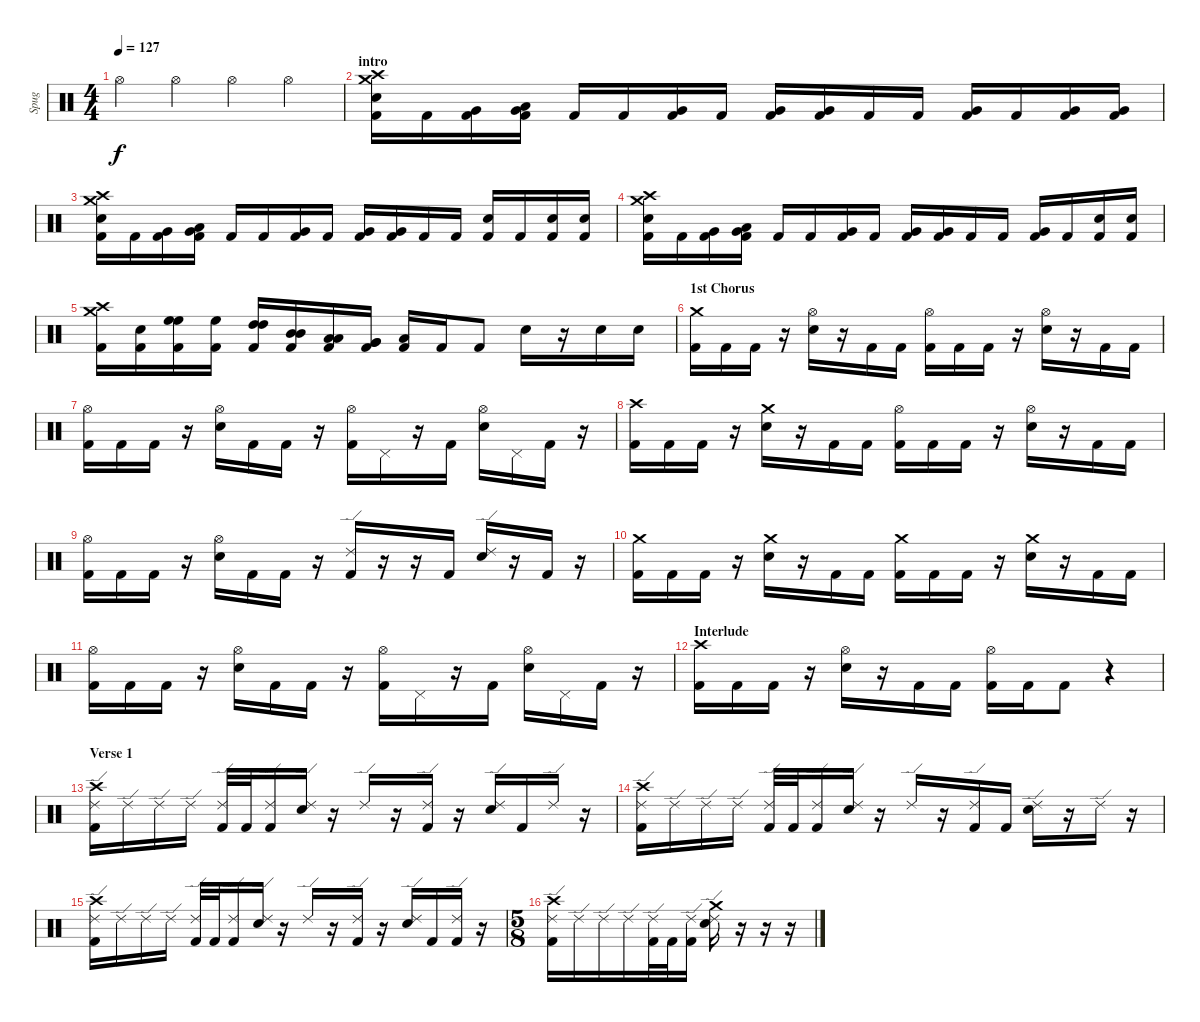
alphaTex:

\track ("Spug" "Spug") {instrument percussion}
\staff {score}
\articulation defaults
\ts (4 4)
\tempo 127
\clef neutral
\ks c "Hi-Hat (open)".4{dy f} "Hi-Hat (open)".4 "Hi-Hat (open)".4 "Hi-Hat (open)".4
|
\section ("" "intro")
("Crash medium (hit)" "Crash high (hit)" "Electric Snare (hit)" "Kick (hit) 2").16 "Kick (hit) 2".16 ("Very Low Tom (hit)" "Kick (hit) 2").16 ("Low Tom (hit)" "Very Low Tom (hit)" "Kick (hit) 2").16 "Kick (hit) 2".16 "Kick (hit) 2".16 ("Very Low Tom (hit)" "Kick (hit) 2").16 "Kick (hit) 2".16 ("Very Low Tom (hit)" "Kick (hit) 2").16 ("Very Low Tom (hit)" "Kick (hit) 2").16 "Kick (hit) 2".16 "Kick (hit) 2".16 ("Very Low Tom (hit)" "Kick (hit) 2").16 "Kick (hit) 2".16 ("Very Low Tom (hit)" "Kick (hit) 2").16 ("Very Low Tom (hit)" "Kick (hit) 2").16 |
("Crash medium (hit)" "Crash high (hit)" "Electric Snare (hit)" "Kick (hit) 2").16 "Kick (hit) 2".16 ("Very Low Tom (hit)" "Kick (hit) 2").16 ("Low Tom (hit)" "Very Low Tom (hit)" "Kick (hit) 2").16 "Kick (hit) 2".16 "Kick (hit) 2".16 ("Very Low Tom (hit)" "Kick (hit) 2").16 "Kick (hit) 2".16 ("Very Low Tom (hit)" "Kick (hit) 2").16 ("Very Low Tom (hit)" "Kick (hit) 2").16 "Kick (hit) 2".16 "Kick (hit) 2".16 ("Electric Snare (hit)" "Kick (hit) 2").16 "Kick (hit) 2".16 ("Electric Snare (hit)" "Kick (hit) 2").16 ("Electric Snare (hit)" "Kick (hit) 2").16 |
("Crash medium (hit)" "Crash high (hit)" "Electric Snare (hit)" "Kick (hit) 2").16 "Kick (hit) 2".16 ("Very Low Tom (hit)" "Kick (hit) 2").16 ("Low Tom (hit)" "Very Low Tom (hit)" "Kick (hit) 2").16 "Kick (hit) 2".16 "Kick (hit) 2".16 ("Very Low Tom (hit)" "Kick (hit) 2").16 "Kick (hit) 2".16 ("Very Low Tom (hit)" "Kick (hit) 2").16 ("Very Low Tom (hit)" "Kick (hit) 2").16 "Kick (hit) 2".16 "Kick (hit) 2".16 ("Very Low Tom (hit)" "Kick (hit) 2").16 "Kick (hit) 2".16 ("Electric Snare (hit)" "Kick (hit) 2").16 ("Electric Snare (hit)" "Kick (hit) 2").16 |
("Crash medium (hit)" "Crash high (hit)" "Kick (hit) 2").16 ("Electric Snare (hit)" "Kick (hit) 2").16 ("High Floor Tom (hit)" "High Floor Tom (hit)" "Kick (hit) 2").16 ("High Floor Tom (hit)" "Kick (hit) 2").16 ("High Tom (hit)" "High Tom (hit)" "Kick (hit) 2").16 ("Mid Tom (hit)" "Mid Tom (hit)" "Kick (hit) 2").16 ("Low Tom (hit)" "Low Tom (hit)" "Kick (hit) 2").16 ("Very Low Tom (hit)" "Very Low Tom (hit)" "Kick (hit) 2").16 ("Low Floor Tom (hit)" "Kick (hit) 2").16 "Kick (hit) 2".16 "Kick (hit) 2".8 "Electric Snare (hit)".16 r.16 "Electric Snare (hit)".16 "Electric Snare (hit)".16 |
\section ("" "1st Chorus")
("Crash medium (hit)" "Kick (hit) 2").16 "Kick (hit) 2".16 "Kick (hit) 2".16 r.16 ("Hi-Hat (open)" "Electric Snare (hit)").16 r.16 "Kick (hit) 2".16 "Kick (hit) 2".16 ("Hi-Hat (open)" "Kick (hit) 2").16 "Kick (hit) 2".16 "Kick (hit) 2".16 r.16 ("Hi-Hat (open)" "Electric Snare (hit)").16 r.16 "Kick (hit) 2".16 "Kick (hit) 2".16 |
("Hi-Hat (open)" "Kick (hit) 2").16 "Kick (hit) 2".16 "Kick (hit) 2".16 r.16 ("Hi-Hat (open)" "Electric Snare (hit)").16 "Kick (hit) 2".16 "Kick (hit) 2".16 r.16 ("Hi-Hat (open)" "Kick (hit) 2").16 "Pedal Hi-Hat (hit)".16 r.16 "Kick (hit) 2".16 ("Hi-Hat (open)" "Electric Snare (hit)").16 "Pedal Hi-Hat (hit)".16 "Kick (hit) 2".16 r.16 |
("Crash high (hit)" "Kick (hit) 2").16 "Kick (hit) 2".16 "Kick (hit) 2".16 r.16 ("Crash medium (hit)" "Electric Snare (hit)").16 r.16 "Kick (hit) 2".16 "Kick (hit) 2".16 ("Hi-Hat (open)" "Kick (hit) 2").16 "Kick (hit) 2".16 "Kick (hit) 2".16 r.16 ("Hi-Hat (open)" "Electric Snare (hit)").16 r.16 "Kick (hit) 2".16 "Kick (hit) 2".16 |
("Hi-Hat (open)" "Kick (hit) 2").16 "Kick (hit) 2".16 "Kick (hit) 2".16 r.16 ("Hi-Hat (open)" "Electric Snare (hit)").16 "Kick (hit) 2".16 "Kick (hit) 2".16 r.16 ("Ride (edge) 2" "Kick (hit) 2").16 r.16 r.16 "Kick (hit) 2".16 ("Ride (edge) 2" "Electric Snare (hit)").16 r.16 "Kick (hit) 2".16 r.16 |
("Crash medium (hit)" "Kick (hit) 2").16 "Kick (hit) 2".16 "Kick (hit) 2".16 r.16 ("Crash medium (hit)" "Electric Snare (hit)").16 r.16 "Kick (hit) 2".16 "Kick (hit) 2".16 ("Crash medium (hit)" "Kick (hit) 2").16 "Kick (hit) 2".16 "Kick (hit) 2".16 r.16 ("Crash medium (hit)" "Electric Snare (hit)").16 r.16 "Kick (hit) 2".16 "Kick (hit) 2".16 |
("Hi-Hat (open)" "Kick (hit) 2").16 "Kick (hit) 2".16 "Kick (hit) 2".16 r.16 ("Hi-Hat (open)" "Electric Snare (hit)").16 "Kick (hit) 2".16 "Kick (hit) 2".16 r.16 ("Hi-Hat (open)" "Kick (hit) 2").16 "Pedal Hi-Hat (hit)".16 r.16 "Kick (hit) 2".16 ("Hi-Hat (open)" "Electric Snare (hit)").16 "Pedal Hi-Hat (hit)".16 "Kick (hit) 2".16 r.16 |
\section ("" "Interlude")
("Crash high (hit)" "Kick (hit) 2").16 "Kick (hit) 2".16 "Kick (hit) 2".16 r.16 ("Hi-Hat (open)" "Electric Snare (hit)").16 r.16 "Kick (hit) 2".16 "Kick (hit) 2".16 ("Hi-Hat (open)" "Kick (hit) 2").16 "Kick (hit) 2".16 "Kick (hit) 2".8 r.4 |
\section ("" "Verse 1")
("Crash high (hit)" "Ride (edge) 2" "Kick (hit) 2").16 "Ride (edge) 2".16 "Ride (edge) 2".16 "Ride (edge) 2".16 ("Ride (edge) 2" "Kick (hit) 2").32 "Kick (hit) 2".32 ("Ride (edge) 2" "Kick (hit) 2").16 ("Ride (edge) 2" "Electric Snare (hit)").16 r.16 "Ride (edge) 2".16 r.16 ("Ride (edge) 2" "Kick (hit) 2").16 r.16 ("Ride (edge) 2" "Electric Snare (hit)").16 "Kick (hit) 2".16 "Ride (edge) 2".16 r.16 |
("Crash high (hit)" "Ride (edge) 2" "Kick (hit) 2").16 "Ride (edge) 2".16 "Ride (edge) 2".16 "Ride (edge) 2".16 ("Ride (edge) 2" "Kick (hit) 2").32 "Kick (hit) 2".32 ("Ride (edge) 2" "Kick (hit) 2").16 ("Ride (edge) 2" "Electric Snare (hit)").16 r.16 "Ride (edge) 2".16 r.16 ("Ride (edge) 2" "Kick (hit) 2").16 "Kick (hit) 2".16 ("Ride (edge) 2" "Electric Snare (hit)").16 r.16 "Ride (edge) 2".16 r.16 |
("Crash high (hit)" "Ride (edge) 2" "Kick (hit) 2").16 "Ride (edge) 2".16 "Ride (edge) 2".16 "Ride (edge) 2".16 ("Ride (edge) 2" "Kick (hit) 2").32 "Kick (hit) 2".32 ("Ride (edge) 2" "Kick (hit) 2").16 ("Ride (edge) 2" "Electric Snare (hit)").16 r.16 "Ride (edge) 2".16 r.16 ("Ride (edge) 2" "Kick (hit) 2").16 r.16 ("Ride (edge) 2" "Electric Snare (hit)").16 "Kick (hit) 2".16 ("Ride (edge) 2" "Kick (hit) 2").16 r.16 |
\ts (5 8)
("Crash high (hit)" "Ride (edge) 2" "Kick (hit) 2").16 "Ride (edge) 2".16 "Ride (edge) 2".16 "Ride (edge) 2".16 ("Ride (edge) 2" "Kick (hit) 2").32 "Kick (hit) 2".32 ("Ride (edge) 2" "Kick (hit) 2").16 ("Crash medium (hit)" "Ride (edge) 2" "Electric Snare (hit)").16 r.16 r.16 r.16
